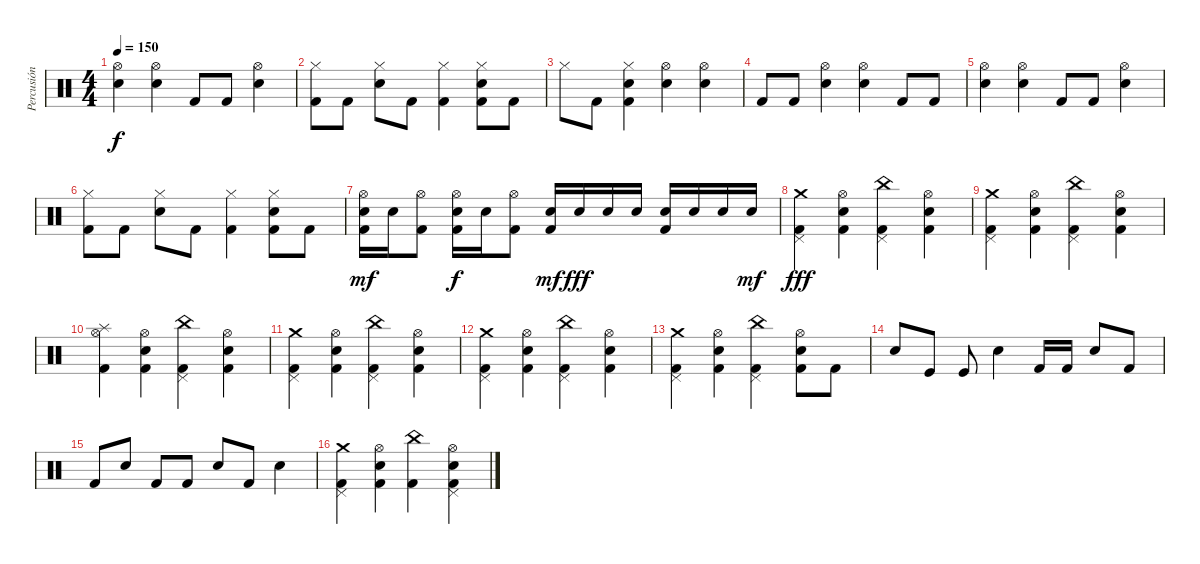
\track ("Percusión" "Percusión") {instrument percussion}
\staff {score}
\articulation defaults
\ts (4 4)
\tempo 150
\clef neutral
\ks c
("Hi-Hat (open)" "Electric Snare (hit)").4{dy f} ("Hi-Hat (open)" "Electric Snare (hit)").4 "Kick (hit) 2".8 "Kick (hit) 2".8 ("Hi-Hat (open)" "Electric Snare (hit)").4 |
("Hi-Hat (closed)" "Kick (hit) 2").8 "Kick (hit) 2".8 ("Hi-Hat (closed)" "Electric Snare (hit)").8 "Kick (hit) 2".8 ("Hi-Hat (closed)" "Kick (hit) 2").4 ("Hi-Hat (closed)" "Kick (hit) 2" "Electric Snare (hit)").8 "Kick (hit) 2".8 |
"Hi-Hat (closed)".8 "Kick (hit) 2".8 ("Hi-Hat (closed)" "Kick (hit) 2" "Electric Snare (hit)").4 ("Hi-Hat (open)" "Electric Snare (hit)").4 ("Hi-Hat (open)" "Electric Snare (hit)").4 |
"Kick (hit) 2".8 "Kick (hit) 2".8 ("Hi-Hat (open)" "Electric Snare (hit)").4 ("Hi-Hat (open)" "Electric Snare (hit)").4 "Kick (hit) 2".8 "Kick (hit) 2".8 |
("Hi-Hat (open)" "Electric Snare (hit)").4 ("Hi-Hat (open)" "Electric Snare (hit)").4 "Kick (hit) 2".8 "Kick (hit) 2".8 ("Hi-Hat (open)" "Electric Snare (hit)").4 |
("Hi-Hat (closed)" "Kick (hit) 2").8 "Kick (hit) 2".8 ("Hi-Hat (closed)" "Electric Snare (hit)").8 "Kick (hit) 2".8 ("Hi-Hat (closed)" "Kick (hit) 2").4 ("Hi-Hat (closed)" "Kick (hit) 2" "Electric Snare (hit)").8 "Kick (hit) 2".8 |
("Hi-Hat (open)" "Electric Snare (hit)" "Kick (hit) 2").16{dy mf} "Electric Snare (hit)".16 ("Hi-Hat (open)" "Kick (hit) 2").8 ("Hi-Hat (open)" "Electric Snare (hit)" "Kick (hit) 2").16{dy f} "Electric Snare (hit)".16 ("Hi-Hat (open)" "Kick (hit) 2").8 ("Electric Snare (hit)" "Kick (hit) 2").16{dy mf} "Electric Snare (hit)".16{dy fff} "Electric Snare (hit)".16 "Electric Snare (hit)".16 ("Kick (hit) 2" "Electric Snare (hit)").16 "Electric Snare (hit)".16 "Electric Snare (hit)".16 "Electric Snare (hit)".16{dy mf} |
("Pedal Hi-Hat (hit)" "Kick (hit) 2" "Crash medium (hit)").4{dy fff} ("Hi-Hat (open)" "Kick (hit) 2" "Electric Snare (hit)").4 ("China (hit)" "Kick (hit) 2" "Pedal Hi-Hat (hit)").4 ("Hi-Hat (open)" "Kick (hit) 2" "Electric Snare (hit)").4 |
("Crash medium (hit)" "Kick (hit) 2" "Pedal Hi-Hat (hit)").4 ("Kick (hit) 2" "Electric Snare (hit)" "Hi-Hat (open)").4 ("China (hit)" "Kick (hit) 2" "Pedal Hi-Hat (hit)").4 ("Hi-Hat (open)" "Kick (hit) 2" "Electric Snare (hit)").4 |
("Hi-Hat (open)" "Kick (hit) 2" "Splash (hit)").4 ("Hi-Hat (open)" "Kick (hit) 2" "Electric Snare (hit)").4 ("China (hit)" "Kick (hit) 2" "Pedal Hi-Hat (hit)").4 ("Hi-Hat (open)" "Kick (hit) 2" "Electric Snare (hit)").4 |
("Crash medium (hit)" "Kick (hit) 2" "Pedal Hi-Hat (hit)").4 ("Hi-Hat (open)" "Kick (hit) 2" "Electric Snare (hit)").4 ("China (hit)" "Kick (hit) 2" "Pedal Hi-Hat (hit)").4 ("Hi-Hat (open)" "Kick (hit) 2" "Electric Snare (hit)").4 |
("Pedal Hi-Hat (hit)" "Kick (hit) 2" "Crash medium (hit)").4 ("Hi-Hat (open)" "Kick (hit) 2" "Electric Snare (hit)").4 ("China (hit)" "Kick (hit) 2" "Pedal Hi-Hat (hit)").4 ("Hi-Hat (open)" "Kick (hit) 2" "Electric Snare (hit)").4 |
("Crash medium (hit)" "Kick (hit) 2" "Pedal Hi-Hat (hit)").4 ("Hi-Hat (open)" "Kick (hit) 2" "Electric Snare (hit)").4 ("China (hit)" "Kick (hit) 2" "Pedal Hi-Hat (hit)").4 ("Hi-Hat (open)" "Kick (hit) 2" "Electric Snare (hit)").8 "Kick (hit) 2".8 |
"Electric Snare (hit)".8 "Kick (hit)".8 "Kick (hit)".8 "Electric Snare (hit)".4 "Kick (hit) 2".16 "Kick (hit) 2".16 "Electric Snare (hit)".8 "Kick (hit) 2".8 |
"Kick (hit) 2".8 "Electric Snare (hit)".8 "Kick (hit) 2".8 "Kick (hit) 2".8 "Electric Snare (hit)".8 "Kick (hit) 2".8 "Electric Snare (hit)".4 |
("Pedal Hi-Hat (hit)" "Kick (hit) 2" "Crash medium (hit)").4 ("Kick (hit) 2" "Electric Snare (hit)" "Hi-Hat (open)").4 ("China (hit)" "Kick (hit) 2").4 ("Pedal Hi-Hat (hit)" "Kick (hit) 2" "Electric Snare (hit)" "Hi-Hat (open)").4
